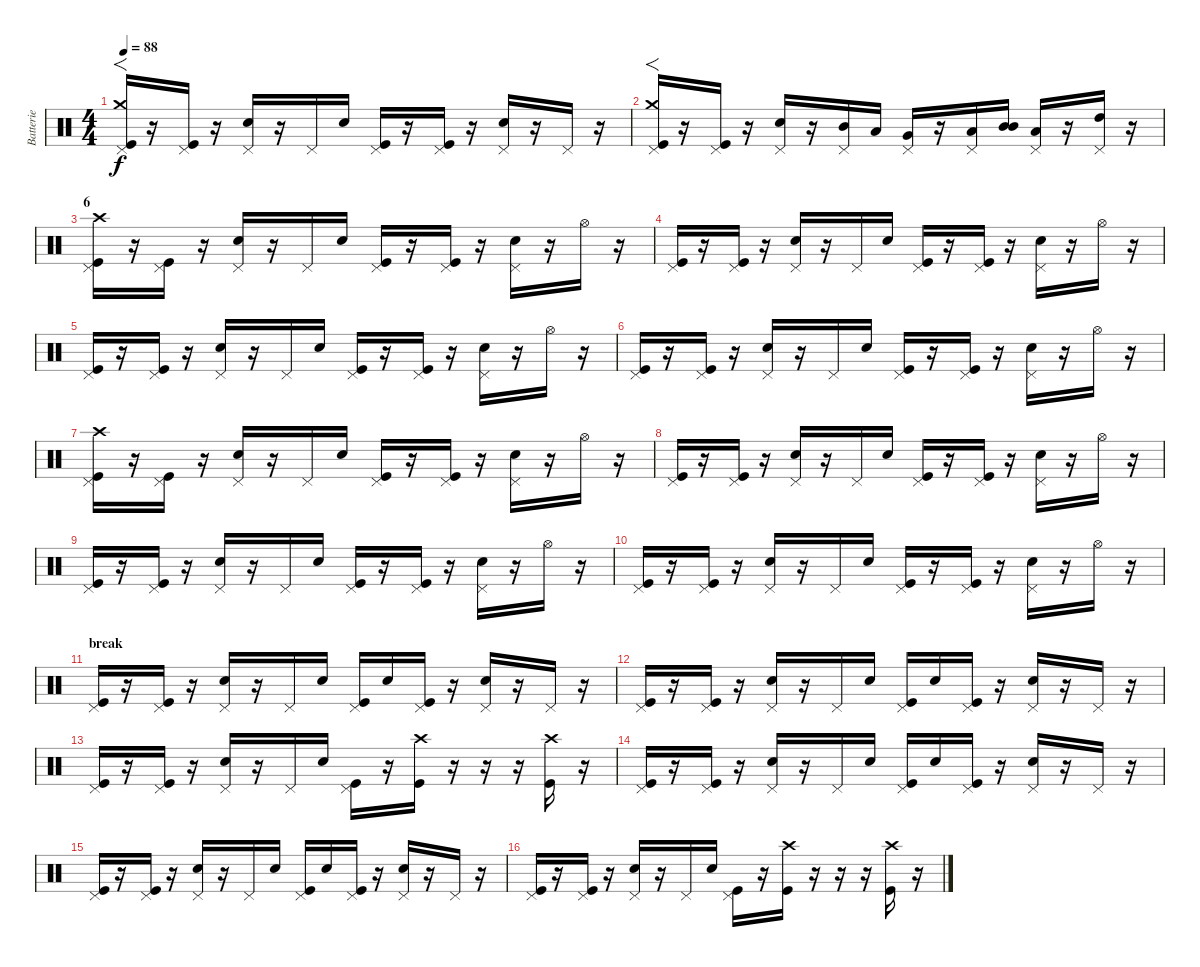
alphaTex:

\track ("Batterie" "Batterie") {instrument percussion}
\staff {score}
\articulation defaults
\ts (4 4)
\tempo 88
\clef neutral
\ks c
("Pedal Hi-Hat (hit)" "Crash medium (hit)" "Kick (hit)").16{f dy f} r.16 ("Pedal Hi-Hat (hit)" "Kick (hit)").16 r.16 ("Pedal Hi-Hat (hit)" "Electric Snare (hit)").16 r.16 "Pedal Hi-Hat (hit)".16 "Electric Snare (hit)".16 ("Pedal Hi-Hat (hit)" "Kick (hit)").16 r.16 ("Pedal Hi-Hat (hit)" "Kick (hit)").16 r.16 ("Pedal Hi-Hat (hit)" "Electric Snare (hit)").16 r.16 "Pedal Hi-Hat (hit)".16 r.16 |
("Pedal Hi-Hat (hit)" "Crash medium (hit)" "Kick (hit)").16{f} r.16 ("Pedal Hi-Hat (hit)" "Kick (hit)").16 r.16 ("Pedal Hi-Hat (hit)" "Electric Snare (hit)").16 r.16 ("Pedal Hi-Hat (hit)" "Mid Tom (hit)").16 "Low Tom (hit)".16 ("Pedal Hi-Hat (hit)" "Very Low Tom (hit)").16 r.16 ("Pedal Hi-Hat (hit)" "Low Tom (hit)").16 ("Mid Tom (hit)" "Mid Tom (hit)").16 ("Pedal Hi-Hat (hit)" "Low Tom (hit)").16 r.16 ("Pedal Hi-Hat (hit)" "High Tom (hit)").16 r.16 |
\section ("" "6")
("Pedal Hi-Hat (hit)" "Crash high (hit)" "Kick (hit)").16 r.16 ("Pedal Hi-Hat (hit)" "Kick (hit)").16 r.16 ("Pedal Hi-Hat (hit)" "Electric Snare (hit)").16 r.16 "Pedal Hi-Hat (hit)".16 "Electric Snare (hit)".16 ("Pedal Hi-Hat (hit)" "Kick (hit)").16 r.16 ("Pedal Hi-Hat (hit)" "Kick (hit)").16 r.16 ("Pedal Hi-Hat (hit)" "Electric Snare (hit)").16 r.16 "Hi-Hat (open)".16 r.16 |
("Pedal Hi-Hat (hit)" "Kick (hit)").16 r.16 ("Pedal Hi-Hat (hit)" "Kick (hit)").16 r.16 ("Pedal Hi-Hat (hit)" "Electric Snare (hit)").16 r.16 "Pedal Hi-Hat (hit)".16 "Electric Snare (hit)".16 ("Pedal Hi-Hat (hit)" "Kick (hit)").16 r.16 ("Pedal Hi-Hat (hit)" "Kick (hit)").16 r.16 ("Pedal Hi-Hat (hit)" "Electric Snare (hit)").16 r.16 "Hi-Hat (open)".16 r.16 |
("Pedal Hi-Hat (hit)" "Kick (hit)").16 r.16 ("Pedal Hi-Hat (hit)" "Kick (hit)").16 r.16 ("Pedal Hi-Hat (hit)" "Electric Snare (hit)").16 r.16 "Pedal Hi-Hat (hit)".16 "Electric Snare (hit)".16 ("Pedal Hi-Hat (hit)" "Kick (hit)").16 r.16 ("Pedal Hi-Hat (hit)" "Kick (hit)").16 r.16 ("Pedal Hi-Hat (hit)" "Electric Snare (hit)").16 r.16 "Hi-Hat (open)".16 r.16 |
("Pedal Hi-Hat (hit)" "Kick (hit)").16 r.16 ("Pedal Hi-Hat (hit)" "Kick (hit)").16 r.16 ("Pedal Hi-Hat (hit)" "Electric Snare (hit)").16 r.16 "Pedal Hi-Hat (hit)".16 "Electric Snare (hit)".16 ("Pedal Hi-Hat (hit)" "Kick (hit)").16 r.16 ("Pedal Hi-Hat (hit)" "Kick (hit)").16 r.16 ("Pedal Hi-Hat (hit)" "Electric Snare (hit)").16 r.16 "Hi-Hat (open)".16 r.16 |
("Pedal Hi-Hat (hit)" "Crash high (hit)" "Kick (hit)").16 r.16 ("Pedal Hi-Hat (hit)" "Kick (hit)").16 r.16 ("Pedal Hi-Hat (hit)" "Electric Snare (hit)").16 r.16 "Pedal Hi-Hat (hit)".16 "Electric Snare (hit)".16 ("Pedal Hi-Hat (hit)" "Kick (hit)").16 r.16 ("Pedal Hi-Hat (hit)" "Kick (hit)").16 r.16 ("Pedal Hi-Hat (hit)" "Electric Snare (hit)").16 r.16 "Hi-Hat (open)".16 r.16 |
("Pedal Hi-Hat (hit)" "Kick (hit)").16 r.16 ("Pedal Hi-Hat (hit)" "Kick (hit)").16 r.16 ("Pedal Hi-Hat (hit)" "Electric Snare (hit)").16 r.16 "Pedal Hi-Hat (hit)".16 "Electric Snare (hit)".16 ("Pedal Hi-Hat (hit)" "Kick (hit)").16 r.16 ("Pedal Hi-Hat (hit)" "Kick (hit)").16 r.16 ("Pedal Hi-Hat (hit)" "Electric Snare (hit)").16 r.16 "Hi-Hat (open)".16 r.16 |
("Pedal Hi-Hat (hit)" "Kick (hit)").16 r.16 ("Pedal Hi-Hat (hit)" "Kick (hit)").16 r.16 ("Pedal Hi-Hat (hit)" "Electric Snare (hit)").16 r.16 "Pedal Hi-Hat (hit)".16 "Electric Snare (hit)".16 ("Pedal Hi-Hat (hit)" "Kick (hit)").16 r.16 ("Pedal Hi-Hat (hit)" "Kick (hit)").16 r.16 ("Pedal Hi-Hat (hit)" "Electric Snare (hit)").16 r.16 "Hi-Hat (open)".16 r.16 |
("Pedal Hi-Hat (hit)" "Kick (hit)").16 r.16 ("Pedal Hi-Hat (hit)" "Kick (hit)").16 r.16 ("Pedal Hi-Hat (hit)" "Electric Snare (hit)").16 r.16 "Pedal Hi-Hat (hit)".16 "Electric Snare (hit)".16 ("Pedal Hi-Hat (hit)" "Kick (hit)").16 r.16 ("Pedal Hi-Hat (hit)" "Kick (hit)").16 r.16 ("Pedal Hi-Hat (hit)" "Electric Snare (hit)").16 r.16 "Hi-Hat (open)".16 r.16 |
\section ("" "break")
("Pedal Hi-Hat (hit)" "Kick (hit)").16 r.16 ("Pedal Hi-Hat (hit)" "Kick (hit)").16 r.16 ("Pedal Hi-Hat (hit)" "Electric Snare (hit)").16 r.16 "Pedal Hi-Hat (hit)".16 "Electric Snare (hit)".16 ("Pedal Hi-Hat (hit)" "Kick (hit)").16 "Electric Snare (hit)".16 ("Pedal Hi-Hat (hit)" "Kick (hit)").16 r.16 ("Pedal Hi-Hat (hit)" "Electric Snare (hit)").16 r.16 "Pedal Hi-Hat (hit)".16 r.16 |
("Pedal Hi-Hat (hit)" "Kick (hit)").16 r.16 ("Pedal Hi-Hat (hit)" "Kick (hit)").16 r.16 ("Pedal Hi-Hat (hit)" "Electric Snare (hit)").16 r.16 "Pedal Hi-Hat (hit)".16 "Electric Snare (hit)".16 ("Pedal Hi-Hat (hit)" "Kick (hit)").16 "Electric Snare (hit)".16 ("Pedal Hi-Hat (hit)" "Kick (hit)").16 r.16 ("Pedal Hi-Hat (hit)" "Electric Snare (hit)").16 r.16 "Pedal Hi-Hat (hit)".16 r.16 |
("Pedal Hi-Hat (hit)" "Kick (hit)").16 r.16 ("Pedal Hi-Hat (hit)" "Kick (hit)").16 r.16 ("Pedal Hi-Hat (hit)" "Electric Snare (hit)").16 r.16 "Pedal Hi-Hat (hit)".16 "Electric Snare (hit)".16 ("Pedal Hi-Hat (hit)" "Kick (hit)").16 r.16 ("Crash high (hit)" "Kick (hit)").16 r.16 r.16 r.16 ("Crash high (hit)" "Kick (hit)").16 r.16 |
("Pedal Hi-Hat (hit)" "Kick (hit)").16 r.16 ("Pedal Hi-Hat (hit)" "Kick (hit)").16 r.16 ("Pedal Hi-Hat (hit)" "Electric Snare (hit)").16 r.16 "Pedal Hi-Hat (hit)".16 "Electric Snare (hit)".16 ("Pedal Hi-Hat (hit)" "Kick (hit)").16 "Electric Snare (hit)".16 ("Pedal Hi-Hat (hit)" "Kick (hit)").16 r.16 ("Pedal Hi-Hat (hit)" "Electric Snare (hit)").16 r.16 "Pedal Hi-Hat (hit)".16 r.16 |
("Pedal Hi-Hat (hit)" "Kick (hit)").16 r.16 ("Pedal Hi-Hat (hit)" "Kick (hit)").16 r.16 ("Pedal Hi-Hat (hit)" "Electric Snare (hit)").16 r.16 "Pedal Hi-Hat (hit)".16 "Electric Snare (hit)".16 ("Pedal Hi-Hat (hit)" "Kick (hit)").16 "Electric Snare (hit)".16 ("Pedal Hi-Hat (hit)" "Kick (hit)").16 r.16 ("Pedal Hi-Hat (hit)" "Electric Snare (hit)").16 r.16 "Pedal Hi-Hat (hit)".16 r.16 |
("Pedal Hi-Hat (hit)" "Kick (hit)").16 r.16 ("Pedal Hi-Hat (hit)" "Kick (hit)").16 r.16 ("Pedal Hi-Hat (hit)" "Electric Snare (hit)").16 r.16 "Pedal Hi-Hat (hit)".16 "Electric Snare (hit)".16 ("Pedal Hi-Hat (hit)" "Kick (hit)").16 r.16 ("Crash high (hit)" "Kick (hit)").16 r.16 r.16 r.16 ("Crash high (hit)" "Kick (hit)").16 r.16
